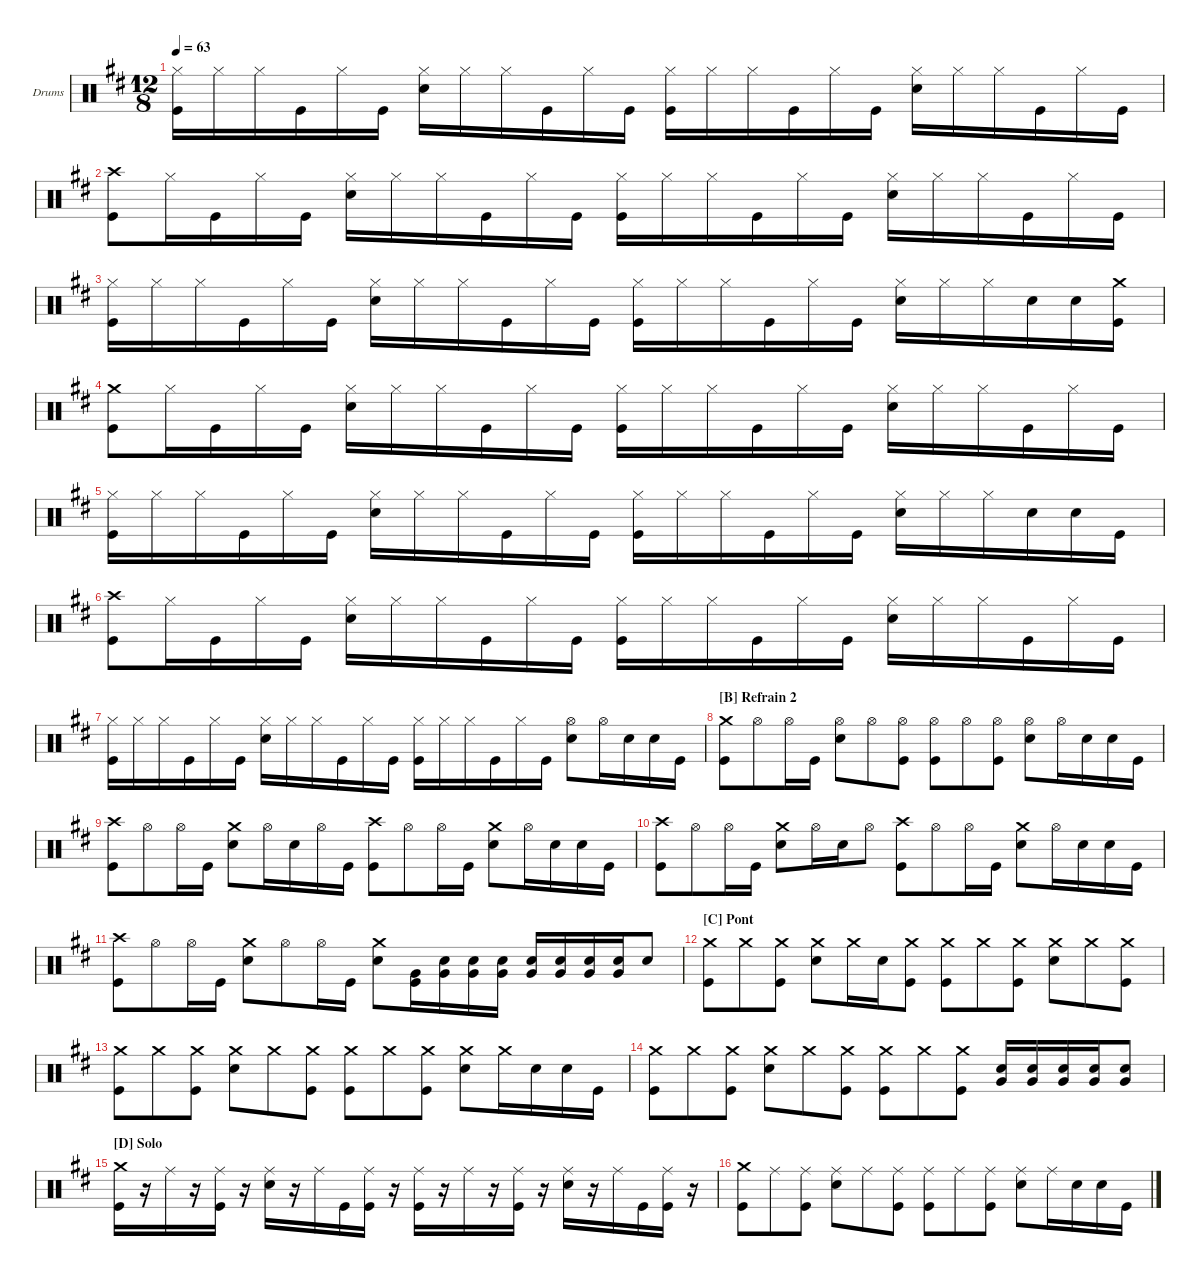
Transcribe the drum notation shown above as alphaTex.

\defaultSystemsLayout 4
\hideDynamics
\bracketExtendMode groupsimilarinstruments
\firstSystemTrackNameOrientation horizontal
\otherSystemsTrackNameOrientation horizontal
\track ("Batterie" "Drums") {multiBarRest instrument percussion}
\staff {score}
\articulation defaults
\ts (12 8)
\tempo 63
\clef neutral
\ks d
("Kick (hit)" "Hi-Hat (closed)").16{dy mf} "Hi-Hat (closed)".16 "Hi-Hat (closed)".16 "Kick (hit)".16 "Hi-Hat (closed)".16 "Kick (hit)".16 ("Snare (hit) 2" "Hi-Hat (closed)").16 "Hi-Hat (closed)".16 "Hi-Hat (closed)".16 "Kick (hit)".16 "Hi-Hat (closed)".16 "Kick (hit)".16 ("Kick (hit)" "Hi-Hat (closed)").16 "Hi-Hat (closed)".16 "Hi-Hat (closed)".16 "Kick (hit)".16 "Hi-Hat (closed)".16 "Kick (hit)".16 ("Snare (hit) 2" "Hi-Hat (closed)").16 "Hi-Hat (closed)".16 "Hi-Hat (closed)".16 "Kick (hit)".16 "Hi-Hat (closed)".16 "Kick (hit)".16 |
("Kick (hit)" "Crash high (hit)").8 "Hi-Hat (closed)".16 "Kick (hit)".16 "Hi-Hat (closed)".16 "Kick (hit)".16 ("Snare (hit) 2" "Hi-Hat (closed)").16 "Hi-Hat (closed)".16 "Hi-Hat (closed)".16 "Kick (hit)".16 "Hi-Hat (closed)".16 "Kick (hit)".16 ("Kick (hit)" "Hi-Hat (closed)").16 "Hi-Hat (closed)".16 "Hi-Hat (closed)".16 "Kick (hit)".16 "Hi-Hat (closed)".16 "Kick (hit)".16 ("Snare (hit) 2" "Hi-Hat (closed)").16 "Hi-Hat (closed)".16 "Hi-Hat (closed)".16 "Kick (hit)".16 "Hi-Hat (closed)".16 "Kick (hit)".16 |
("Kick (hit)" "Hi-Hat (closed)").16 "Hi-Hat (closed)".16 "Hi-Hat (closed)".16 "Kick (hit)".16 "Hi-Hat (closed)".16 "Kick (hit)".16 ("Snare (hit) 2" "Hi-Hat (closed)").16 "Hi-Hat (closed)".16 "Hi-Hat (closed)".16 "Kick (hit)".16 "Hi-Hat (closed)".16 "Kick (hit)".16 ("Kick (hit)" "Hi-Hat (closed)").16 "Hi-Hat (closed)".16 "Hi-Hat (closed)".16 "Kick (hit)".16 "Hi-Hat (closed)".16 "Kick (hit)".16 ("Snare (hit) 2" "Hi-Hat (closed)").16 "Hi-Hat (closed)".16 "Hi-Hat (closed)".16 "Snare (hit) 2".16 "Snare (hit) 2".16 ("Kick (hit)" "Crash medium (hit)").16 |
("Kick (hit)" "Crash medium (hit)").8 "Hi-Hat (closed)".16 "Kick (hit)".16 "Hi-Hat (closed)".16 "Kick (hit)".16 ("Snare (hit) 2" "Hi-Hat (closed)").16 "Hi-Hat (closed)".16 "Hi-Hat (closed)".16 "Kick (hit)".16 "Hi-Hat (closed)".16 "Kick (hit)".16 ("Kick (hit)" "Hi-Hat (closed)").16 "Hi-Hat (closed)".16 "Hi-Hat (closed)".16 "Kick (hit)".16 "Hi-Hat (closed)".16 "Kick (hit)".16 ("Snare (hit) 2" "Hi-Hat (closed)").16 "Hi-Hat (closed)".16 "Hi-Hat (closed)".16 "Kick (hit)".16 "Hi-Hat (closed)".16 "Kick (hit)".16 |
("Kick (hit)" "Hi-Hat (closed)").16 "Hi-Hat (closed)".16 "Hi-Hat (closed)".16 "Kick (hit)".16 "Hi-Hat (closed)".16 "Kick (hit)".16 ("Snare (hit) 2" "Hi-Hat (closed)").16 "Hi-Hat (closed)".16 "Hi-Hat (closed)".16 "Kick (hit)".16 "Hi-Hat (closed)".16 "Kick (hit)".16 ("Kick (hit)" "Hi-Hat (closed)").16 "Hi-Hat (closed)".16 "Hi-Hat (closed)".16 "Kick (hit)".16 "Hi-Hat (closed)".16 "Kick (hit)".16 ("Snare (hit) 2" "Hi-Hat (closed)").16 "Hi-Hat (closed)".16 "Hi-Hat (closed)".16 "Snare (hit) 2".16 "Snare (hit) 2".16 "Kick (hit)".16 |
("Kick (hit)" "Crash high (hit)").8 "Hi-Hat (closed)".16 "Kick (hit)".16 "Hi-Hat (closed)".16 "Kick (hit)".16 ("Snare (hit) 2" "Hi-Hat (closed)").16 "Hi-Hat (closed)".16 "Hi-Hat (closed)".16 "Kick (hit)".16 "Hi-Hat (closed)".16 "Kick (hit)".16 ("Kick (hit)" "Hi-Hat (closed)").16 "Hi-Hat (closed)".16 "Hi-Hat (closed)".16 "Kick (hit)".16 "Hi-Hat (closed)".16 "Kick (hit)".16 ("Snare (hit) 2" "Hi-Hat (closed)").16 "Hi-Hat (closed)".16 "Hi-Hat (closed)".16 "Kick (hit)".16 "Hi-Hat (closed)".16 "Kick (hit)".16 |
("Kick (hit)" "Hi-Hat (closed)").16 "Hi-Hat (closed)".16 "Hi-Hat (closed)".16 "Kick (hit)".16 "Hi-Hat (closed)".16 "Kick (hit)".16 ("Snare (hit) 2" "Hi-Hat (closed)").16 "Hi-Hat (closed)".16 "Hi-Hat (closed)".16 "Kick (hit)".16 "Hi-Hat (closed)".16 "Kick (hit)".16 ("Kick (hit)" "Hi-Hat (closed)").16 "Hi-Hat (closed)".16 "Hi-Hat (closed)".16 "Kick (hit)".16 "Hi-Hat (closed)".16 "Kick (hit)".16 ("Snare (hit) 2" "Hi-Hat (open)").8 "Hi-Hat (open)".16 "Snare (hit) 2".16 "Snare (hit) 2".16 "Kick (hit)".16 |
\section ("B" "Refrain 2")
("Kick (hit)" "Crash medium (hit)").8 "Hi-Hat (open)".8 "Hi-Hat (open)".16 "Kick (hit)".16 ("Snare (hit) 2" "Hi-Hat (open)").8 "Hi-Hat (open)".8 ("Kick (hit)" "Hi-Hat (open)").8 ("Kick (hit)" "Hi-Hat (open)").8 "Hi-Hat (open)".8 ("Kick (hit)" "Hi-Hat (open)").8 ("Snare (hit) 2" "Hi-Hat (open)").8 "Hi-Hat (open)".16 "Snare (hit) 2".16 "Snare (hit) 2".16 "Kick (hit)".16 |
("Kick (hit)" "Crash high (hit)").8 "Hi-Hat (open)".8 "Hi-Hat (open)".16 "Kick (hit)".16 ("Snare (hit) 2" "Crash medium (hit)").8 "Hi-Hat (open)".16 "Snare (hit) 2".16 "Hi-Hat (open)".16 "Kick (hit)".16 ("Kick (hit)" "Crash high (hit)").8 "Hi-Hat (open)".8 "Hi-Hat (open)".16 "Kick (hit)".16 ("Snare (hit) 2" "Crash medium (hit)").8 "Hi-Hat (open)".16 "Snare (hit) 2".16 "Snare (hit) 2".16 "Kick (hit)".16 |
("Kick (hit)" "Crash high (hit)").8 "Hi-Hat (open)".8 "Hi-Hat (open)".16 "Kick (hit)".16 ("Snare (hit) 2" "Crash medium (hit)").8 "Hi-Hat (open)".16 "Snare (hit) 2".16 "Hi-Hat (open)".8 ("Kick (hit)" "Crash high (hit)").8 "Hi-Hat (open)".8 "Hi-Hat (open)".16 "Kick (hit)".16 ("Snare (hit) 2" "Crash medium (hit)").8 "Hi-Hat (open)".16 "Snare (hit) 2".16 "Snare (hit) 2".16 "Kick (hit)".16 |
("Kick (hit)" "Crash high (hit)").8 "Hi-Hat (open)".8 "Hi-Hat (open)".16 "Kick (hit)".16 ("Snare (hit) 2" "Crash medium (hit)").8 "Hi-Hat (open)".8 "Hi-Hat (open)".16 "Kick (hit)".16 ("Snare (hit) 2" "Crash medium (hit)").8 ("Kick (hit)" "Very Low Tom (hit)").16 ("Snare (hit) 2" "Very Low Tom (hit)").16 ("Snare (hit) 2" "Very Low Tom (hit)").16 ("Snare (hit) 2" "Very Low Tom (hit)").16 ("Snare (hit) 2" "Very Low Tom (hit)").16 ("Snare (hit) 2" "Very Low Tom (hit)").16 ("Snare (hit) 2" "Very Low Tom (hit)").16 ("Snare (hit) 2" "Very Low Tom (hit)").16 "Snare (hit) 2".8 |
\section ("C" "Pont")
("Kick (hit)" "Crash medium (hit)").8{dy ff} "Crash medium (hit)".8 ("Kick (hit)" "Crash medium (hit)").8 ("Snare (hit) 2" "Crash medium (hit)").8 "Crash medium (hit)".16 "Snare (hit) 2".16 ("Kick (hit)" "Crash medium (hit)").8 ("Kick (hit)" "Crash medium (hit)").8 "Crash medium (hit)".8 ("Kick (hit)" "Crash medium (hit)").8 ("Snare (hit) 2" "Crash medium (hit)").8 "Crash medium (hit)".8 ("Kick (hit)" "Crash medium (hit)").8 |
("Kick (hit)" "Crash medium (hit)").8 "Crash medium (hit)".8 ("Kick (hit)" "Crash medium (hit)").8 ("Snare (hit) 2" "Crash medium (hit)").8 "Crash medium (hit)".8 ("Kick (hit)" "Crash medium (hit)").8 ("Kick (hit)" "Crash medium (hit)").8 "Crash medium (hit)".8 ("Kick (hit)" "Crash medium (hit)").8 ("Snare (hit) 2" "Crash medium (hit)").8 "Crash medium (hit)".16 "Snare (hit) 2".16 "Snare (hit) 2".16 "Kick (hit)".16 |
("Kick (hit)" "Crash medium (hit)").8 "Crash medium (hit)".8 ("Kick (hit)" "Crash medium (hit)").8 ("Snare (hit) 2" "Crash medium (hit)").8 "Crash medium (hit)".8 ("Kick (hit)" "Crash medium (hit)").8 ("Kick (hit)" "Crash medium (hit)").8 "Crash medium (hit)".8 ("Kick (hit)" "Crash medium (hit)").8 ("Snare (hit) 2" "Very Low Tom (hit)").16 ("Snare (hit) 2" "Very Low Tom (hit)").16 ("Snare (hit) 2" "Very Low Tom (hit)").16 ("Snare (hit) 2" "Very Low Tom (hit)").16 ("Snare (hit) 2" "Very Low Tom (hit)").8 |
\section ("D" "Solo")
("Kick (hit)" "Crash medium (hit)").16 r.16 "Ride (middle)".16 r.16 ("Kick (hit)" "Ride (middle)").16 r.16 ("Snare (hit) 2" "Ride (middle)").16 r.16 "Ride (middle)".16 "Kick (hit)".16 ("Kick (hit)" "Ride (middle)").16 r.16 ("Kick (hit)" "Ride (middle)").16 r.16 "Ride (middle)".16 r.16 ("Kick (hit)" "Ride (middle)").16 r.16 ("Snare (hit) 2" "Ride (middle)").16 r.16 "Ride (middle)".16 "Kick (hit)".16 ("Kick (hit)" "Ride (middle)").16 r.16 |
("Kick (hit)" "Crash medium (hit)").8 "Ride (middle)".8 ("Kick (hit)" "Ride (middle)").8 ("Snare (hit) 2" "Ride (middle)").8 "Ride (middle)".8 ("Kick (hit)" "Ride (middle)").8 ("Kick (hit)" "Ride (middle)").8 "Ride (middle)".8 ("Kick (hit)" "Ride (middle)").8 ("Snare (hit) 2" "Ride (middle)").8 "Ride (middle)".16 "Snare (hit) 2".16 "Snare (hit) 2".16 "Kick (hit)".16
